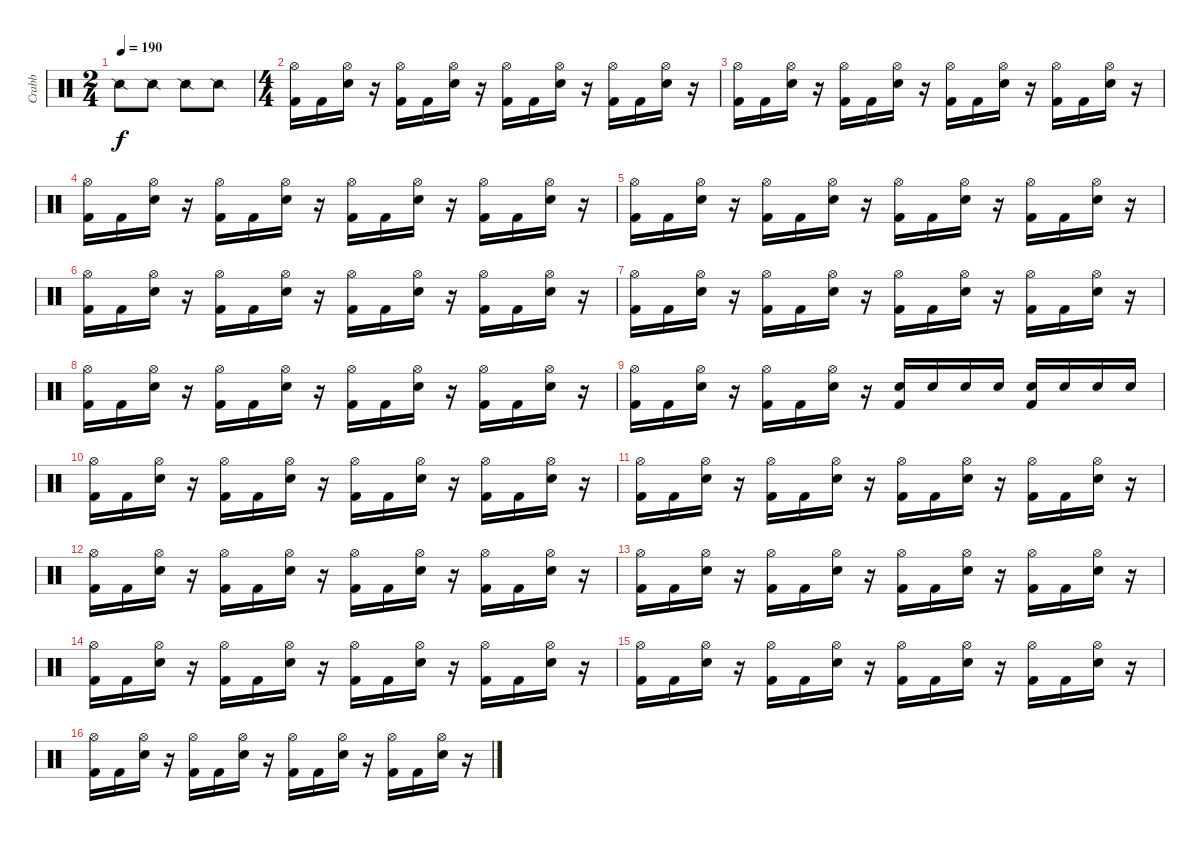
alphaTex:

\track ("Crabb" "Crabb") {instrument percussion}
\staff {score}
\articulation defaults
\ts (2 4)
\tempo 190
\clef neutral
\ks c "Snare (side stick) 2".8{dy f} "Snare (side stick) 2".8 "Snare (side stick) 2".8 "Snare (side stick) 2".8
|
\ts (4 4)
("Hi-Hat (open)" "Kick (hit) 2").16 "Kick (hit) 2".16 ("Hi-Hat (open)" "Electric Snare (hit)").16 r.16 ("Hi-Hat (open)" "Kick (hit) 2").16 "Kick (hit) 2".16 ("Hi-Hat (open)" "Electric Snare (hit)").16 r.16 ("Hi-Hat (open)" "Kick (hit) 2").16 "Kick (hit) 2".16 ("Hi-Hat (open)" "Electric Snare (hit)").16 r.16 ("Hi-Hat (open)" "Kick (hit) 2").16 "Kick (hit) 2".16 ("Hi-Hat (open)" "Electric Snare (hit)").16 r.16 |
("Hi-Hat (open)" "Kick (hit) 2").16 "Kick (hit) 2".16 ("Hi-Hat (open)" "Electric Snare (hit)").16 r.16 ("Hi-Hat (open)" "Kick (hit) 2").16 "Kick (hit) 2".16 ("Hi-Hat (open)" "Electric Snare (hit)").16 r.16 ("Hi-Hat (open)" "Kick (hit) 2").16 "Kick (hit) 2".16 ("Hi-Hat (open)" "Electric Snare (hit)").16 r.16 ("Hi-Hat (open)" "Kick (hit) 2").16 "Kick (hit) 2".16 ("Hi-Hat (open)" "Electric Snare (hit)").16 r.16 |
("Hi-Hat (open)" "Kick (hit) 2").16 "Kick (hit) 2".16 ("Hi-Hat (open)" "Electric Snare (hit)").16 r.16 ("Hi-Hat (open)" "Kick (hit) 2").16 "Kick (hit) 2".16 ("Hi-Hat (open)" "Electric Snare (hit)").16 r.16 ("Hi-Hat (open)" "Kick (hit) 2").16 "Kick (hit) 2".16 ("Hi-Hat (open)" "Electric Snare (hit)").16 r.16 ("Hi-Hat (open)" "Kick (hit) 2").16 "Kick (hit) 2".16 ("Hi-Hat (open)" "Electric Snare (hit)").16 r.16 |
("Hi-Hat (open)" "Kick (hit) 2").16 "Kick (hit) 2".16 ("Hi-Hat (open)" "Electric Snare (hit)").16 r.16 ("Hi-Hat (open)" "Kick (hit) 2").16 "Kick (hit) 2".16 ("Hi-Hat (open)" "Electric Snare (hit)").16 r.16 ("Hi-Hat (open)" "Kick (hit) 2").16 "Kick (hit) 2".16 ("Hi-Hat (open)" "Electric Snare (hit)").16 r.16 ("Hi-Hat (open)" "Kick (hit) 2").16 "Kick (hit) 2".16 ("Hi-Hat (open)" "Electric Snare (hit)").16 r.16 |
("Hi-Hat (open)" "Kick (hit) 2").16 "Kick (hit) 2".16 ("Hi-Hat (open)" "Electric Snare (hit)").16 r.16 ("Hi-Hat (open)" "Kick (hit) 2").16 "Kick (hit) 2".16 ("Hi-Hat (open)" "Electric Snare (hit)").16 r.16 ("Hi-Hat (open)" "Kick (hit) 2").16 "Kick (hit) 2".16 ("Hi-Hat (open)" "Electric Snare (hit)").16 r.16 ("Hi-Hat (open)" "Kick (hit) 2").16 "Kick (hit) 2".16 ("Hi-Hat (open)" "Electric Snare (hit)").16 r.16 |
("Hi-Hat (open)" "Kick (hit) 2").16 "Kick (hit) 2".16 ("Hi-Hat (open)" "Electric Snare (hit)").16 r.16 ("Hi-Hat (open)" "Kick (hit) 2").16 "Kick (hit) 2".16 ("Hi-Hat (open)" "Electric Snare (hit)").16 r.16 ("Hi-Hat (open)" "Kick (hit) 2").16 "Kick (hit) 2".16 ("Hi-Hat (open)" "Electric Snare (hit)").16 r.16 ("Hi-Hat (open)" "Kick (hit) 2").16 "Kick (hit) 2".16 ("Hi-Hat (open)" "Electric Snare (hit)").16 r.16 |
("Hi-Hat (open)" "Kick (hit) 2").16 "Kick (hit) 2".16 ("Hi-Hat (open)" "Electric Snare (hit)").16 r.16 ("Hi-Hat (open)" "Kick (hit) 2").16 "Kick (hit) 2".16 ("Hi-Hat (open)" "Electric Snare (hit)").16 r.16 ("Hi-Hat (open)" "Kick (hit) 2").16 "Kick (hit) 2".16 ("Hi-Hat (open)" "Electric Snare (hit)").16 r.16 ("Hi-Hat (open)" "Kick (hit) 2").16 "Kick (hit) 2".16 ("Hi-Hat (open)" "Electric Snare (hit)").16 r.16 |
("Hi-Hat (open)" "Kick (hit) 2").16 "Kick (hit) 2".16 ("Hi-Hat (open)" "Electric Snare (hit)").16 r.16 ("Hi-Hat (open)" "Kick (hit) 2").16 "Kick (hit) 2".16 ("Hi-Hat (open)" "Electric Snare (hit)").16 r.16 ("Electric Snare (hit)" "Kick (hit) 2").16 "Electric Snare (hit)".16 "Electric Snare (hit)".16 "Electric Snare (hit)".16 ("Electric Snare (hit)" "Kick (hit) 2").16 "Electric Snare (hit)".16 "Electric Snare (hit)".16 "Electric Snare (hit)".16 |
("Hi-Hat (open)" "Kick (hit) 2").16 "Kick (hit) 2".16 ("Hi-Hat (open)" "Electric Snare (hit)").16 r.16 ("Hi-Hat (open)" "Kick (hit) 2").16 "Kick (hit) 2".16 ("Hi-Hat (open)" "Electric Snare (hit)").16 r.16 ("Hi-Hat (open)" "Kick (hit) 2").16 "Kick (hit) 2".16 ("Hi-Hat (open)" "Electric Snare (hit)").16 r.16 ("Hi-Hat (open)" "Kick (hit) 2").16 "Kick (hit) 2".16 ("Hi-Hat (open)" "Electric Snare (hit)").16 r.16 |
("Hi-Hat (open)" "Kick (hit) 2").16 "Kick (hit) 2".16 ("Hi-Hat (open)" "Electric Snare (hit)").16 r.16 ("Hi-Hat (open)" "Kick (hit) 2").16 "Kick (hit) 2".16 ("Hi-Hat (open)" "Electric Snare (hit)").16 r.16 ("Hi-Hat (open)" "Kick (hit) 2").16 "Kick (hit) 2".16 ("Hi-Hat (open)" "Electric Snare (hit)").16 r.16 ("Hi-Hat (open)" "Kick (hit) 2").16 "Kick (hit) 2".16 ("Hi-Hat (open)" "Electric Snare (hit)").16 r.16 |
("Hi-Hat (open)" "Kick (hit) 2").16 "Kick (hit) 2".16 ("Hi-Hat (open)" "Electric Snare (hit)").16 r.16 ("Hi-Hat (open)" "Kick (hit) 2").16 "Kick (hit) 2".16 ("Hi-Hat (open)" "Electric Snare (hit)").16 r.16 ("Hi-Hat (open)" "Kick (hit) 2").16 "Kick (hit) 2".16 ("Hi-Hat (open)" "Electric Snare (hit)").16 r.16 ("Hi-Hat (open)" "Kick (hit) 2").16 "Kick (hit) 2".16 ("Hi-Hat (open)" "Electric Snare (hit)").16 r.16 |
("Hi-Hat (open)" "Kick (hit) 2").16 "Kick (hit) 2".16 ("Hi-Hat (open)" "Electric Snare (hit)").16 r.16 ("Hi-Hat (open)" "Kick (hit) 2").16 "Kick (hit) 2".16 ("Hi-Hat (open)" "Electric Snare (hit)").16 r.16 ("Hi-Hat (open)" "Kick (hit) 2").16 "Kick (hit) 2".16 ("Hi-Hat (open)" "Electric Snare (hit)").16 r.16 ("Hi-Hat (open)" "Kick (hit) 2").16 "Kick (hit) 2".16 ("Hi-Hat (open)" "Electric Snare (hit)").16 r.16 |
("Hi-Hat (open)" "Kick (hit) 2").16 "Kick (hit) 2".16 ("Hi-Hat (open)" "Electric Snare (hit)").16 r.16 ("Hi-Hat (open)" "Kick (hit) 2").16 "Kick (hit) 2".16 ("Hi-Hat (open)" "Electric Snare (hit)").16 r.16 ("Hi-Hat (open)" "Kick (hit) 2").16 "Kick (hit) 2".16 ("Hi-Hat (open)" "Electric Snare (hit)").16 r.16 ("Hi-Hat (open)" "Kick (hit) 2").16 "Kick (hit) 2".16 ("Hi-Hat (open)" "Electric Snare (hit)").16 r.16 |
("Hi-Hat (open)" "Kick (hit) 2").16 "Kick (hit) 2".16 ("Hi-Hat (open)" "Electric Snare (hit)").16 r.16 ("Hi-Hat (open)" "Kick (hit) 2").16 "Kick (hit) 2".16 ("Hi-Hat (open)" "Electric Snare (hit)").16 r.16 ("Hi-Hat (open)" "Kick (hit) 2").16 "Kick (hit) 2".16 ("Hi-Hat (open)" "Electric Snare (hit)").16 r.16 ("Hi-Hat (open)" "Kick (hit) 2").16 "Kick (hit) 2".16 ("Hi-Hat (open)" "Electric Snare (hit)").16 r.16 |
("Hi-Hat (open)" "Kick (hit) 2").16 "Kick (hit) 2".16 ("Hi-Hat (open)" "Electric Snare (hit)").16 r.16 ("Hi-Hat (open)" "Kick (hit) 2").16 "Kick (hit) 2".16 ("Hi-Hat (open)" "Electric Snare (hit)").16 r.16 ("Hi-Hat (open)" "Kick (hit) 2").16 "Kick (hit) 2".16 ("Hi-Hat (open)" "Electric Snare (hit)").16 r.16 ("Hi-Hat (open)" "Kick (hit) 2").16 "Kick (hit) 2".16 ("Hi-Hat (open)" "Electric Snare (hit)").16 r.16
